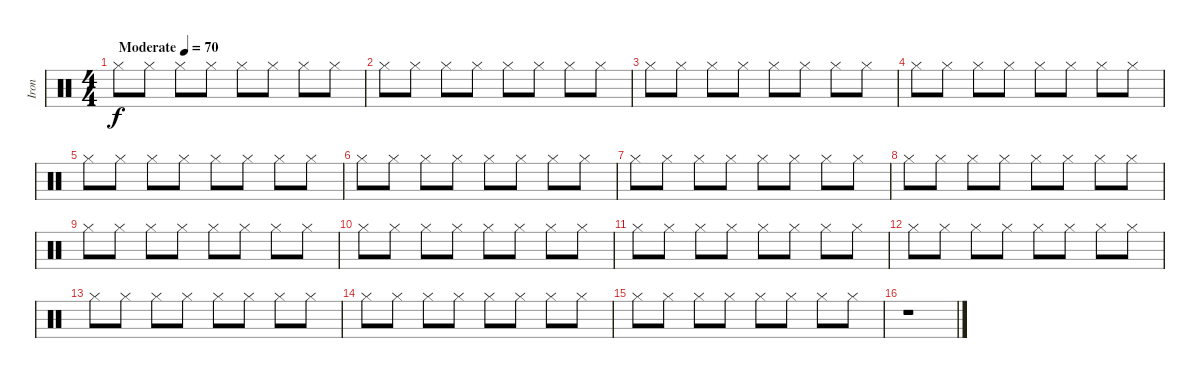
\track ("Iron" "Iron") {instrument percussion}
\staff
\articulation defaults
\ts (4 4)
\tempo (70 "Moderate")
\clef neutral
\ks c "Hi-Hat (closed)".8{dy f} "Hi-Hat (closed)".8 "Hi-Hat (closed)".8 "Hi-Hat (closed)".8 "Hi-Hat (closed)".8 "Hi-Hat (closed)".8 "Hi-Hat (closed)".8 "Hi-Hat (closed)".8
|
"Hi-Hat (closed)".8 "Hi-Hat (closed)".8 "Hi-Hat (closed)".8 "Hi-Hat (closed)".8 "Hi-Hat (closed)".8 "Hi-Hat (closed)".8 "Hi-Hat (closed)".8 "Hi-Hat (closed)".8 |
"Hi-Hat (closed)".8 "Hi-Hat (closed)".8 "Hi-Hat (closed)".8 "Hi-Hat (closed)".8 "Hi-Hat (closed)".8 "Hi-Hat (closed)".8 "Hi-Hat (closed)".8 "Hi-Hat (closed)".8 |
"Hi-Hat (closed)".8 "Hi-Hat (closed)".8 "Hi-Hat (closed)".8 "Hi-Hat (closed)".8 "Hi-Hat (closed)".8 "Hi-Hat (closed)".8 "Hi-Hat (closed)".8 "Hi-Hat (closed)".8 |
"Hi-Hat (closed)".8 "Hi-Hat (closed)".8 "Hi-Hat (closed)".8 "Hi-Hat (closed)".8 "Hi-Hat (closed)".8 "Hi-Hat (closed)".8 "Hi-Hat (closed)".8 "Hi-Hat (closed)".8 |
"Hi-Hat (closed)".8 "Hi-Hat (closed)".8 "Hi-Hat (closed)".8 "Hi-Hat (closed)".8 "Hi-Hat (closed)".8 "Hi-Hat (closed)".8 "Hi-Hat (closed)".8 "Hi-Hat (closed)".8 |
"Hi-Hat (closed)".8 "Hi-Hat (closed)".8 "Hi-Hat (closed)".8 "Hi-Hat (closed)".8 "Hi-Hat (closed)".8 "Hi-Hat (closed)".8 "Hi-Hat (closed)".8 "Hi-Hat (closed)".8 |
"Hi-Hat (closed)".8 "Hi-Hat (closed)".8 "Hi-Hat (closed)".8 "Hi-Hat (closed)".8 "Hi-Hat (closed)".8 "Hi-Hat (closed)".8 "Hi-Hat (closed)".8 "Hi-Hat (closed)".8 |
"Hi-Hat (closed)".8 "Hi-Hat (closed)".8 "Hi-Hat (closed)".8 "Hi-Hat (closed)".8 "Hi-Hat (closed)".8 "Hi-Hat (closed)".8 "Hi-Hat (closed)".8 "Hi-Hat (closed)".8 |
"Hi-Hat (closed)".8 "Hi-Hat (closed)".8 "Hi-Hat (closed)".8 "Hi-Hat (closed)".8 "Hi-Hat (closed)".8 "Hi-Hat (closed)".8 "Hi-Hat (closed)".8 "Hi-Hat (closed)".8 |
"Hi-Hat (closed)".8 "Hi-Hat (closed)".8 "Hi-Hat (closed)".8 "Hi-Hat (closed)".8 "Hi-Hat (closed)".8 "Hi-Hat (closed)".8 "Hi-Hat (closed)".8 "Hi-Hat (closed)".8 |
"Hi-Hat (closed)".8 "Hi-Hat (closed)".8 "Hi-Hat (closed)".8 "Hi-Hat (closed)".8 "Hi-Hat (closed)".8 "Hi-Hat (closed)".8 "Hi-Hat (closed)".8 "Hi-Hat (closed)".8 |
"Hi-Hat (closed)".8 "Hi-Hat (closed)".8 "Hi-Hat (closed)".8 "Hi-Hat (closed)".8 "Hi-Hat (closed)".8 "Hi-Hat (closed)".8 "Hi-Hat (closed)".8 "Hi-Hat (closed)".8 |
"Hi-Hat (closed)".8 "Hi-Hat (closed)".8 "Hi-Hat (closed)".8 "Hi-Hat (closed)".8 "Hi-Hat (closed)".8 "Hi-Hat (closed)".8 "Hi-Hat (closed)".8 "Hi-Hat (closed)".8 |
"Hi-Hat (closed)".8 "Hi-Hat (closed)".8 "Hi-Hat (closed)".8 "Hi-Hat (closed)".8 "Hi-Hat (closed)".8 "Hi-Hat (closed)".8 "Hi-Hat (closed)".8 "Hi-Hat (closed)".8 |
r.1
